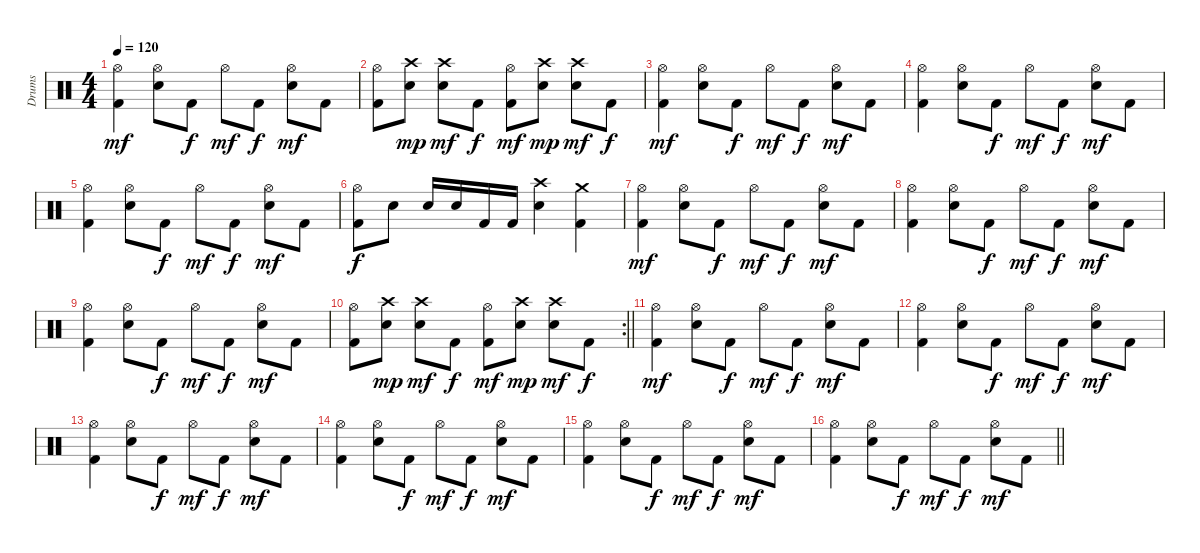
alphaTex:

\track ("Drums" "Drums") {instrument percussion}
\staff {score}
\articulation defaults
\ts (4 4)
\tempo 120
\clef neutral
\ks c
("Kick (hit) 2" "Hi-Hat (open)").4{dy mf} ("Hi-Hat (open)" "Electric Snare (hit)").8 "Kick (hit) 2".8{dy f} "Hi-Hat (open)".8{dy mf} "Kick (hit) 2".8{dy f} ("Electric Snare (hit)" "Hi-Hat (open)").8{dy mf} "Kick (hit) 2".8 |
("Kick (hit) 2" "Hi-Hat (open)").8 ("Electric Snare (hit)" "Crash high (hit)").8{dy mp} ("Electric Snare (hit)" "Crash high (hit)").8{dy mf} "Kick (hit) 2".8{dy f} ("Kick (hit) 2" "Hi-Hat (open)").8{dy mf} ("Electric Snare (hit)" "Crash high (hit)").8{dy mp} ("Electric Snare (hit)" "Crash high (hit)").8{dy mf} "Kick (hit) 2".8{dy f} |
("Kick (hit) 2" "Hi-Hat (open)").4{dy mf} ("Hi-Hat (open)" "Electric Snare (hit)").8 "Kick (hit) 2".8{dy f} "Hi-Hat (open)".8{dy mf} "Kick (hit) 2".8{dy f} ("Electric Snare (hit)" "Hi-Hat (open)").8{dy mf} "Kick (hit) 2".8 |
("Kick (hit) 2" "Hi-Hat (open)").4 ("Hi-Hat (open)" "Electric Snare (hit)").8 "Kick (hit) 2".8{dy f} "Hi-Hat (open)".8{dy mf} "Kick (hit) 2".8{dy f} ("Electric Snare (hit)" "Hi-Hat (open)").8{dy mf} "Kick (hit) 2".8 |
("Kick (hit) 2" "Hi-Hat (open)").4 ("Hi-Hat (open)" "Electric Snare (hit)").8 "Kick (hit) 2".8{dy f} "Hi-Hat (open)".8{dy mf} "Kick (hit) 2".8{dy f} ("Electric Snare (hit)" "Hi-Hat (open)").8{dy mf} "Kick (hit) 2".8 |
("Kick (hit) 2" "Hi-Hat (open)").8{dy f} "Electric Snare (hit)".8 "Electric Snare (hit)".16 "Electric Snare (hit)".16 "Kick (hit) 2".16 "Kick (hit) 2".16 ("Crash high (hit)" "Electric Snare (hit)").4 ("Kick (hit) 2" "Crash medium (hit)").4 |
("Kick (hit) 2" "Hi-Hat (open)").4{dy mf} ("Hi-Hat (open)" "Electric Snare (hit)").8 "Kick (hit) 2".8{dy f} "Hi-Hat (open)".8{dy mf} "Kick (hit) 2".8{dy f} ("Electric Snare (hit)" "Hi-Hat (open)").8{dy mf} "Kick (hit) 2".8 |
("Kick (hit) 2" "Hi-Hat (open)").4 ("Hi-Hat (open)" "Electric Snare (hit)").8 "Kick (hit) 2".8{dy f} "Hi-Hat (open)".8{dy mf} "Kick (hit) 2".8{dy f} ("Electric Snare (hit)" "Hi-Hat (open)").8{dy mf} "Kick (hit) 2".8 |
("Kick (hit) 2" "Hi-Hat (open)").4 ("Hi-Hat (open)" "Electric Snare (hit)").8 "Kick (hit) 2".8{dy f} "Hi-Hat (open)".8{dy mf} "Kick (hit) 2".8{dy f} ("Electric Snare (hit)" "Hi-Hat (open)").8{dy mf} "Kick (hit) 2".8 |
\rc 2
\barLineRight lightlight
("Kick (hit) 2" "Hi-Hat (open)").8 ("Electric Snare (hit)" "Crash high (hit)").8{dy mp} ("Electric Snare (hit)" "Crash high (hit)").8{dy mf} "Kick (hit) 2".8{dy f} ("Kick (hit) 2" "Hi-Hat (open)").8{dy mf} ("Electric Snare (hit)" "Crash high (hit)").8{dy mp} ("Electric Snare (hit)" "Crash high (hit)").8{dy mf} "Kick (hit) 2".8{dy f} |
("Kick (hit) 2" "Hi-Hat (open)").4{dy mf} ("Hi-Hat (open)" "Electric Snare (hit)").8 "Kick (hit) 2".8{dy f} "Hi-Hat (open)".8{dy mf} "Kick (hit) 2".8{dy f} ("Electric Snare (hit)" "Hi-Hat (open)").8{dy mf} "Kick (hit) 2".8 |
("Kick (hit) 2" "Hi-Hat (open)").4 ("Hi-Hat (open)" "Electric Snare (hit)").8 "Kick (hit) 2".8{dy f} "Hi-Hat (open)".8{dy mf} "Kick (hit) 2".8{dy f} ("Electric Snare (hit)" "Hi-Hat (open)").8{dy mf} "Kick (hit) 2".8 |
("Kick (hit) 2" "Hi-Hat (open)").4 ("Hi-Hat (open)" "Electric Snare (hit)").8 "Kick (hit) 2".8{dy f} "Hi-Hat (open)".8{dy mf} "Kick (hit) 2".8{dy f} ("Electric Snare (hit)" "Hi-Hat (open)").8{dy mf} "Kick (hit) 2".8 |
("Kick (hit) 2" "Hi-Hat (open)").4 ("Hi-Hat (open)" "Electric Snare (hit)").8 "Kick (hit) 2".8{dy f} "Hi-Hat (open)".8{dy mf} "Kick (hit) 2".8{dy f} ("Electric Snare (hit)" "Hi-Hat (open)").8{dy mf} "Kick (hit) 2".8 |
("Kick (hit) 2" "Hi-Hat (open)").4 ("Hi-Hat (open)" "Electric Snare (hit)").8 "Kick (hit) 2".8{dy f} "Hi-Hat (open)".8{dy mf} "Kick (hit) 2".8{dy f} ("Electric Snare (hit)" "Hi-Hat (open)").8{dy mf} "Kick (hit) 2".8 |
\barLineRight lightlight
("Kick (hit) 2" "Hi-Hat (open)").4 ("Hi-Hat (open)" "Electric Snare (hit)").8 "Kick (hit) 2".8{dy f} "Hi-Hat (open)".8{dy mf} "Kick (hit) 2".8{dy f} ("Electric Snare (hit)" "Hi-Hat (open)").8{dy mf} "Kick (hit) 2".8
